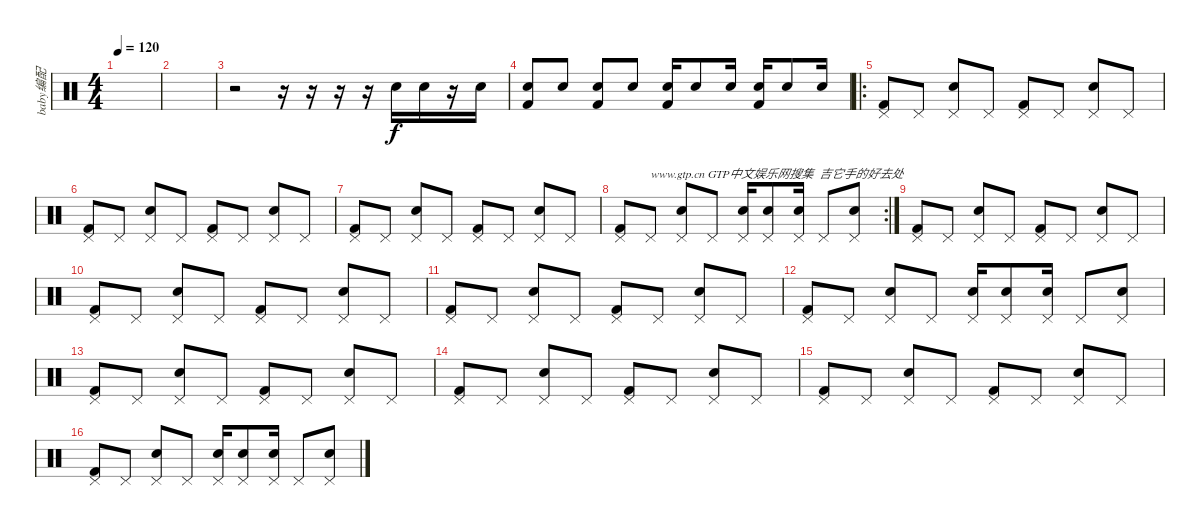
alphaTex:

\track ("baby编配" "baby编配") {instrument percussion}
\staff {score}
\articulation defaults
\ts (4 4)
\tempo 120
\clef neutral
\ks c
|
|
r.2 r.16 r.16 r.16 r.16 "Electric Snare (hit)".16 "Electric Snare (hit)".16 r.16 "Electric Snare (hit)".16 |
("Electric Snare (hit)" "Kick (hit) 2").8 "Electric Snare (hit)".8 ("Electric Snare (hit)" "Kick (hit) 2").8 "Electric Snare (hit)".8 ("Kick (hit) 2" "Electric Snare (hit)").16 "Electric Snare (hit)".8 "Electric Snare (hit)".16 ("Kick (hit) 2" "Electric Snare (hit)").16 "Electric Snare (hit)".8 "Electric Snare (hit)".16 |
\ro
("Kick (hit) 2" "Pedal Hi-Hat (hit)").8 "Pedal Hi-Hat (hit)".8 ("Snare (hit) 2" "Pedal Hi-Hat (hit)").8 "Pedal Hi-Hat (hit)".8 ("Kick (hit) 2" "Pedal Hi-Hat (hit)").8 "Pedal Hi-Hat (hit)".8 ("Snare (hit) 2" "Pedal Hi-Hat (hit)").8 "Pedal Hi-Hat (hit)".8 |
("Kick (hit) 2" "Pedal Hi-Hat (hit)").8 "Pedal Hi-Hat (hit)".8 ("Snare (hit) 2" "Pedal Hi-Hat (hit)").8 "Pedal Hi-Hat (hit)".8 ("Kick (hit) 2" "Pedal Hi-Hat (hit)").8 "Pedal Hi-Hat (hit)".8 ("Snare (hit) 2" "Pedal Hi-Hat (hit)").8 "Pedal Hi-Hat (hit)".8 |
("Kick (hit) 2" "Pedal Hi-Hat (hit)").8 "Pedal Hi-Hat (hit)".8 ("Snare (hit) 2" "Pedal Hi-Hat (hit)").8 "Pedal Hi-Hat (hit)".8 ("Kick (hit) 2" "Pedal Hi-Hat (hit)").8 "Pedal Hi-Hat (hit)".8 ("Snare (hit) 2" "Pedal Hi-Hat (hit)").8 "Pedal Hi-Hat (hit)".8 |
\rc 2
("Pedal Hi-Hat (hit)" "Kick (hit) 2").8 "Pedal Hi-Hat (hit)".8{txt "www.gtp.cn GTP中文娱乐网搜集  吉它手的好去处"} ("Pedal Hi-Hat (hit)" "Snare (hit) 2").8 "Pedal Hi-Hat (hit)".8 ("Pedal Hi-Hat (hit)" "Snare (hit) 2").16 ("Pedal Hi-Hat (hit)" "Snare (hit) 2").8 ("Pedal Hi-Hat (hit)" "Snare (hit) 2").16 "Pedal Hi-Hat (hit)".8 ("Pedal Hi-Hat (hit)" "Snare (hit) 2").8 |
("Kick (hit) 2" "Pedal Hi-Hat (hit)").8 "Pedal Hi-Hat (hit)".8 ("Snare (hit) 2" "Pedal Hi-Hat (hit)").8 "Pedal Hi-Hat (hit)".8 ("Kick (hit) 2" "Pedal Hi-Hat (hit)").8 "Pedal Hi-Hat (hit)".8 ("Snare (hit) 2" "Pedal Hi-Hat (hit)").8 "Pedal Hi-Hat (hit)".8 |
("Kick (hit) 2" "Pedal Hi-Hat (hit)").8 "Pedal Hi-Hat (hit)".8 ("Snare (hit) 2" "Pedal Hi-Hat (hit)").8 "Pedal Hi-Hat (hit)".8 ("Kick (hit) 2" "Pedal Hi-Hat (hit)").8 "Pedal Hi-Hat (hit)".8 ("Snare (hit) 2" "Pedal Hi-Hat (hit)").8 "Pedal Hi-Hat (hit)".8 |
("Kick (hit) 2" "Pedal Hi-Hat (hit)").8 "Pedal Hi-Hat (hit)".8 ("Snare (hit) 2" "Pedal Hi-Hat (hit)").8 "Pedal Hi-Hat (hit)".8 ("Kick (hit) 2" "Pedal Hi-Hat (hit)").8 "Pedal Hi-Hat (hit)".8 ("Snare (hit) 2" "Pedal Hi-Hat (hit)").8 "Pedal Hi-Hat (hit)".8 |
("Pedal Hi-Hat (hit)" "Kick (hit) 2").8 "Pedal Hi-Hat (hit)".8 ("Pedal Hi-Hat (hit)" "Snare (hit) 2").8 "Pedal Hi-Hat (hit)".8 ("Pedal Hi-Hat (hit)" "Snare (hit) 2").16 ("Pedal Hi-Hat (hit)" "Snare (hit) 2").8 ("Pedal Hi-Hat (hit)" "Snare (hit) 2").16 "Pedal Hi-Hat (hit)".8 ("Pedal Hi-Hat (hit)" "Snare (hit) 2").8 |
("Kick (hit) 2" "Pedal Hi-Hat (hit)").8 "Pedal Hi-Hat (hit)".8 ("Snare (hit) 2" "Pedal Hi-Hat (hit)").8 "Pedal Hi-Hat (hit)".8 ("Kick (hit) 2" "Pedal Hi-Hat (hit)").8 "Pedal Hi-Hat (hit)".8 ("Snare (hit) 2" "Pedal Hi-Hat (hit)").8 "Pedal Hi-Hat (hit)".8 |
("Kick (hit) 2" "Pedal Hi-Hat (hit)").8 "Pedal Hi-Hat (hit)".8 ("Snare (hit) 2" "Pedal Hi-Hat (hit)").8 "Pedal Hi-Hat (hit)".8 ("Kick (hit) 2" "Pedal Hi-Hat (hit)").8 "Pedal Hi-Hat (hit)".8 ("Snare (hit) 2" "Pedal Hi-Hat (hit)").8 "Pedal Hi-Hat (hit)".8 |
("Kick (hit) 2" "Pedal Hi-Hat (hit)").8 "Pedal Hi-Hat (hit)".8 ("Snare (hit) 2" "Pedal Hi-Hat (hit)").8 "Pedal Hi-Hat (hit)".8 ("Kick (hit) 2" "Pedal Hi-Hat (hit)").8 "Pedal Hi-Hat (hit)".8 ("Snare (hit) 2" "Pedal Hi-Hat (hit)").8 "Pedal Hi-Hat (hit)".8 |
("Pedal Hi-Hat (hit)" "Kick (hit) 2").8 "Pedal Hi-Hat (hit)".8 ("Pedal Hi-Hat (hit)" "Snare (hit) 2").8 "Pedal Hi-Hat (hit)".8 ("Pedal Hi-Hat (hit)" "Snare (hit) 2").16 ("Pedal Hi-Hat (hit)" "Snare (hit) 2").8 ("Pedal Hi-Hat (hit)" "Snare (hit) 2").16 "Pedal Hi-Hat (hit)".8 ("Pedal Hi-Hat (hit)" "Snare (hit) 2").8
